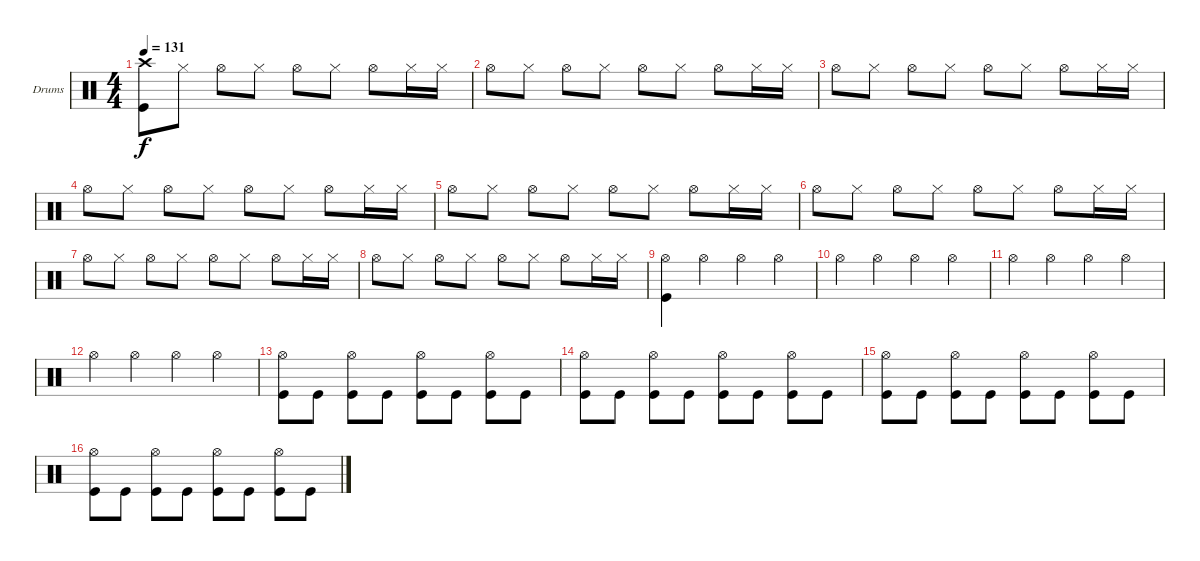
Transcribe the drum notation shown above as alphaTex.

\bracketExtendMode groupsimilarinstruments
\firstSystemTrackNameOrientation horizontal
\otherSystemsTrackNameOrientation horizontal
\track ("Drumkit" "Drums") {instrument percussion}
\staff {score}
\articulation defaults
\ts (4 4)
\tempo 131
\clef neutral
\ks c
("Crash high (hit)" "Kick (hit)").8{dy f} "Hi-Hat (closed)".8 "Hi-Hat (open)".8 "Hi-Hat (closed)".8 "Hi-Hat (open)".8 "Hi-Hat (closed)".8 "Hi-Hat (open)".8 "Hi-Hat (closed)".16 "Hi-Hat (closed)".16 |
"Hi-Hat (open)".8 "Hi-Hat (closed)".8 "Hi-Hat (open)".8 "Hi-Hat (closed)".8 "Hi-Hat (open)".8 "Hi-Hat (closed)".8 "Hi-Hat (open)".8 "Hi-Hat (closed)".16 "Hi-Hat (closed)".16 |
"Hi-Hat (open)".8 "Hi-Hat (closed)".8 "Hi-Hat (open)".8 "Hi-Hat (closed)".8 "Hi-Hat (open)".8 "Hi-Hat (closed)".8 "Hi-Hat (open)".8 "Hi-Hat (closed)".16 "Hi-Hat (closed)".16 |
"Hi-Hat (open)".8 "Hi-Hat (closed)".8 "Hi-Hat (open)".8 "Hi-Hat (closed)".8 "Hi-Hat (open)".8 "Hi-Hat (closed)".8 "Hi-Hat (open)".8 "Hi-Hat (closed)".16 "Hi-Hat (closed)".16 |
"Hi-Hat (open)".8 "Hi-Hat (closed)".8 "Hi-Hat (open)".8 "Hi-Hat (closed)".8 "Hi-Hat (open)".8 "Hi-Hat (closed)".8 "Hi-Hat (open)".8 "Hi-Hat (closed)".16 "Hi-Hat (closed)".16 |
"Hi-Hat (open)".8 "Hi-Hat (closed)".8 "Hi-Hat (open)".8 "Hi-Hat (closed)".8 "Hi-Hat (open)".8 "Hi-Hat (closed)".8 "Hi-Hat (open)".8 "Hi-Hat (closed)".16 "Hi-Hat (closed)".16 |
"Hi-Hat (open)".8 "Hi-Hat (closed)".8 "Hi-Hat (open)".8 "Hi-Hat (closed)".8 "Hi-Hat (open)".8 "Hi-Hat (closed)".8 "Hi-Hat (open)".8 "Hi-Hat (closed)".16 "Hi-Hat (closed)".16 |
"Hi-Hat (open)".8 "Hi-Hat (closed)".8 "Hi-Hat (open)".8 "Hi-Hat (closed)".8 "Hi-Hat (open)".8 "Hi-Hat (closed)".8 "Hi-Hat (open)".8 "Hi-Hat (closed)".16 "Hi-Hat (closed)".16 |
("Hi-Hat (open)" "Kick (hit)").4 "Hi-Hat (open)".4 "Hi-Hat (open)".4 "Hi-Hat (open)".4 |
"Hi-Hat (open)".4 "Hi-Hat (open)".4 "Hi-Hat (open)".4 "Hi-Hat (open)".4 |
"Hi-Hat (open)".4 "Hi-Hat (open)".4 "Hi-Hat (open)".4 "Hi-Hat (open)".4 |
"Hi-Hat (open)".4 "Hi-Hat (open)".4 "Hi-Hat (open)".4 "Hi-Hat (open)".4 |
("Hi-Hat (open)" "Kick (hit)").8 "Kick (hit)".8 ("Hi-Hat (open)" "Kick (hit)").8 "Kick (hit)".8 ("Hi-Hat (open)" "Kick (hit)").8 "Kick (hit)".8 ("Hi-Hat (open)" "Kick (hit)").8 "Kick (hit)".8 |
("Hi-Hat (open)" "Kick (hit)").8 "Kick (hit)".8 ("Hi-Hat (open)" "Kick (hit)").8 "Kick (hit)".8 ("Hi-Hat (open)" "Kick (hit)").8 "Kick (hit)".8 ("Hi-Hat (open)" "Kick (hit)").8 "Kick (hit)".8 |
("Hi-Hat (open)" "Kick (hit)").8 "Kick (hit)".8 ("Hi-Hat (open)" "Kick (hit)").8 "Kick (hit)".8 ("Hi-Hat (open)" "Kick (hit)").8 "Kick (hit)".8 ("Hi-Hat (open)" "Kick (hit)").8 "Kick (hit)".8 |
("Hi-Hat (open)" "Kick (hit)").8 "Kick (hit)".8 ("Hi-Hat (open)" "Kick (hit)").8 "Kick (hit)".8 ("Hi-Hat (open)" "Kick (hit)").8 "Kick (hit)".8 ("Hi-Hat (open)" "Kick (hit)").8 "Kick (hit)".8
